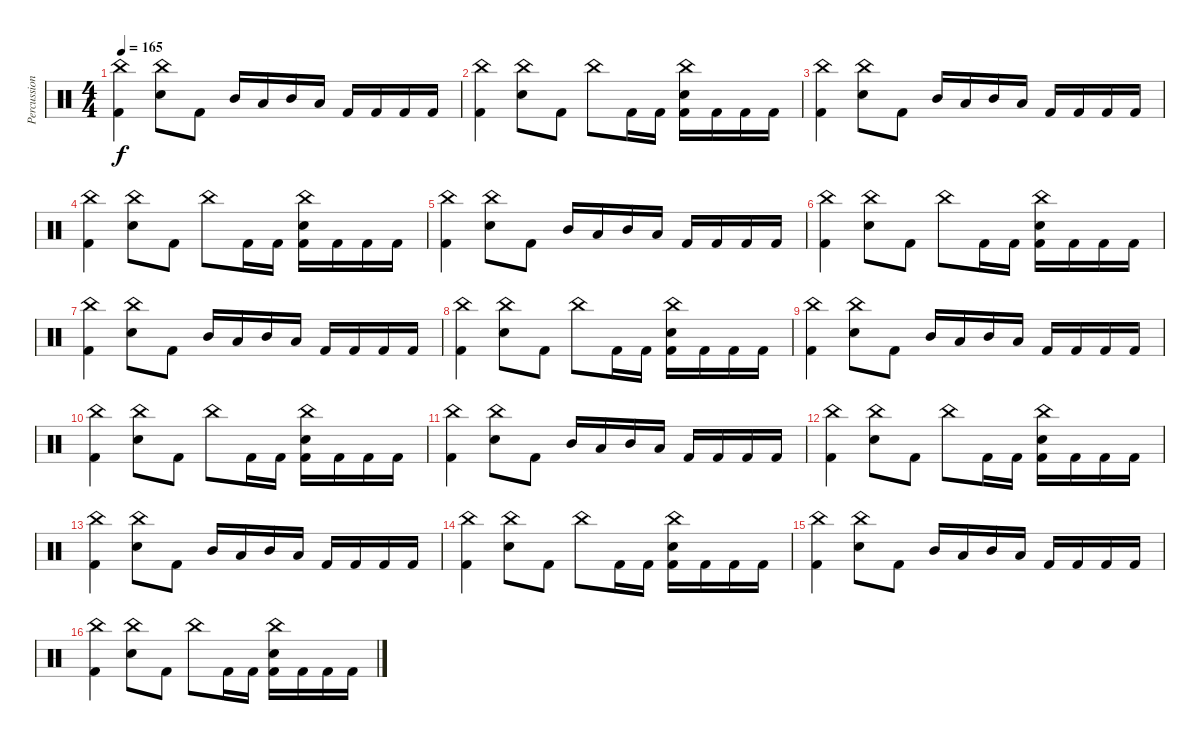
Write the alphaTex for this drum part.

\track ("Percussion" "Percussion") {instrument percussion}
\staff {score}
\articulation defaults
\ts (4 4)
\tempo 165
\clef neutral
\ks c
("China (hit)" "Kick (hit) 2").4{dy f} ("China (hit)" "Snare (hit) 2").8 "Kick (hit) 2".8 "Mid Tom (hit)".16 "Low Tom (hit)".16 "Mid Tom (hit)".16 "Low Tom (hit)".16 "Kick (hit) 2".16 "Kick (hit) 2".16 "Kick (hit) 2".16 "Kick (hit) 2".16 |
("China (hit)" "Kick (hit) 2").4 ("China (hit)" "Snare (hit) 2").8 "Kick (hit) 2".8 "China (hit)".8 "Kick (hit) 2".16 "Kick (hit) 2".16 ("China (hit)" "Snare (hit) 2" "Kick (hit) 2").16 "Kick (hit) 2".16 "Kick (hit) 2".16 "Kick (hit) 2".16 |
("China (hit)" "Kick (hit) 2").4 ("China (hit)" "Snare (hit) 2").8 "Kick (hit) 2".8 "Mid Tom (hit)".16 "Low Tom (hit)".16 "Mid Tom (hit)".16 "Low Tom (hit)".16 "Kick (hit) 2".16 "Kick (hit) 2".16 "Kick (hit) 2".16 "Kick (hit) 2".16 |
("China (hit)" "Kick (hit) 2").4 ("China (hit)" "Snare (hit) 2").8 "Kick (hit) 2".8 "China (hit)".8 "Kick (hit) 2".16 "Kick (hit) 2".16 ("China (hit)" "Snare (hit) 2" "Kick (hit) 2").16 "Kick (hit) 2".16 "Kick (hit) 2".16 "Kick (hit) 2".16 |
("China (hit)" "Kick (hit) 2").4 ("China (hit)" "Snare (hit) 2").8 "Kick (hit) 2".8 "Mid Tom (hit)".16 "Low Tom (hit)".16 "Mid Tom (hit)".16 "Low Tom (hit)".16 "Kick (hit) 2".16 "Kick (hit) 2".16 "Kick (hit) 2".16 "Kick (hit) 2".16 |
("China (hit)" "Kick (hit) 2").4 ("China (hit)" "Snare (hit) 2").8 "Kick (hit) 2".8 "China (hit)".8 "Kick (hit) 2".16 "Kick (hit) 2".16 ("China (hit)" "Snare (hit) 2" "Kick (hit) 2").16 "Kick (hit) 2".16 "Kick (hit) 2".16 "Kick (hit) 2".16 |
("China (hit)" "Kick (hit) 2").4 ("China (hit)" "Snare (hit) 2").8 "Kick (hit) 2".8 "Mid Tom (hit)".16 "Low Tom (hit)".16 "Mid Tom (hit)".16 "Low Tom (hit)".16 "Kick (hit) 2".16 "Kick (hit) 2".16 "Kick (hit) 2".16 "Kick (hit) 2".16 |
("China (hit)" "Kick (hit) 2").4 ("China (hit)" "Snare (hit) 2").8 "Kick (hit) 2".8 "China (hit)".8 "Kick (hit) 2".16 "Kick (hit) 2".16 ("China (hit)" "Snare (hit) 2" "Kick (hit) 2").16 "Kick (hit) 2".16 "Kick (hit) 2".16 "Kick (hit) 2".16 |
("China (hit)" "Kick (hit) 2").4 ("China (hit)" "Snare (hit) 2").8 "Kick (hit) 2".8 "Mid Tom (hit)".16 "Low Tom (hit)".16 "Mid Tom (hit)".16 "Low Tom (hit)".16 "Kick (hit) 2".16 "Kick (hit) 2".16 "Kick (hit) 2".16 "Kick (hit) 2".16 |
("China (hit)" "Kick (hit) 2").4 ("China (hit)" "Snare (hit) 2").8 "Kick (hit) 2".8 "China (hit)".8 "Kick (hit) 2".16 "Kick (hit) 2".16 ("China (hit)" "Snare (hit) 2" "Kick (hit) 2").16 "Kick (hit) 2".16 "Kick (hit) 2".16 "Kick (hit) 2".16 |
("China (hit)" "Kick (hit) 2").4 ("China (hit)" "Snare (hit) 2").8 "Kick (hit) 2".8 "Mid Tom (hit)".16 "Low Tom (hit)".16 "Mid Tom (hit)".16 "Low Tom (hit)".16 "Kick (hit) 2".16 "Kick (hit) 2".16 "Kick (hit) 2".16 "Kick (hit) 2".16 |
("China (hit)" "Kick (hit) 2").4 ("China (hit)" "Snare (hit) 2").8 "Kick (hit) 2".8 "China (hit)".8 "Kick (hit) 2".16 "Kick (hit) 2".16 ("China (hit)" "Snare (hit) 2" "Kick (hit) 2").16 "Kick (hit) 2".16 "Kick (hit) 2".16 "Kick (hit) 2".16 |
("China (hit)" "Kick (hit) 2").4 ("China (hit)" "Snare (hit) 2").8 "Kick (hit) 2".8 "Mid Tom (hit)".16 "Low Tom (hit)".16 "Mid Tom (hit)".16 "Low Tom (hit)".16 "Kick (hit) 2".16 "Kick (hit) 2".16 "Kick (hit) 2".16 "Kick (hit) 2".16 |
("China (hit)" "Kick (hit) 2").4 ("China (hit)" "Snare (hit) 2").8 "Kick (hit) 2".8 "China (hit)".8 "Kick (hit) 2".16 "Kick (hit) 2".16 ("China (hit)" "Snare (hit) 2" "Kick (hit) 2").16 "Kick (hit) 2".16 "Kick (hit) 2".16 "Kick (hit) 2".16 |
("China (hit)" "Kick (hit) 2").4 ("China (hit)" "Snare (hit) 2").8 "Kick (hit) 2".8 "Mid Tom (hit)".16 "Low Tom (hit)".16 "Mid Tom (hit)".16 "Low Tom (hit)".16 "Kick (hit) 2".16 "Kick (hit) 2".16 "Kick (hit) 2".16 "Kick (hit) 2".16 |
("China (hit)" "Kick (hit) 2").4 ("China (hit)" "Snare (hit) 2").8 "Kick (hit) 2".8 "China (hit)".8 "Kick (hit) 2".16 "Kick (hit) 2".16 ("China (hit)" "Snare (hit) 2" "Kick (hit) 2").16 "Kick (hit) 2".16 "Kick (hit) 2".16 "Kick (hit) 2".16
